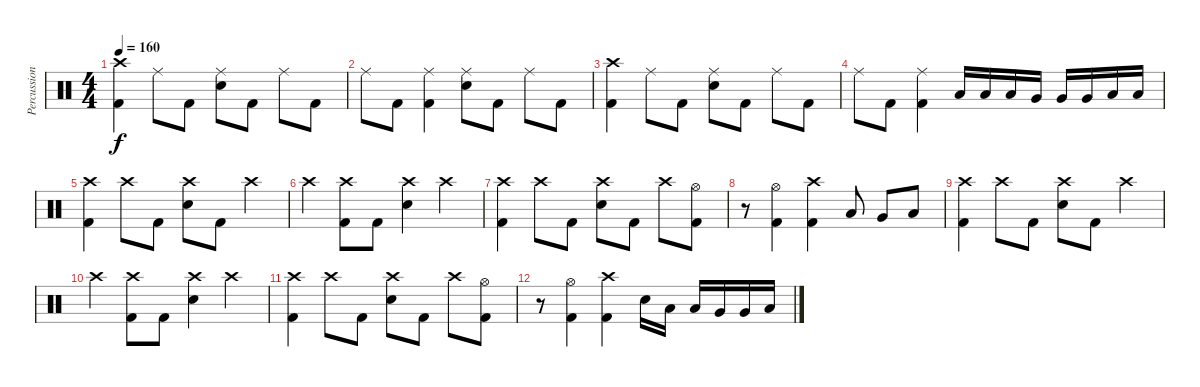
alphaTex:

\track ("Percussion" "Percussion") {instrument percussion}
\staff {score}
\articulation defaults
\ts (4 4)
\tempo 160
\clef neutral
\ks c
("Crash high (hit)" "Kick (hit) 2").4{dy f} "Ride (middle)".8 "Kick (hit) 2".8 ("Ride (middle)" "Electric Snare (hit)").8 "Kick (hit) 2".8 "Ride (middle)".8 "Kick (hit) 2".8 |
"Ride (middle)".8 "Kick (hit) 2".8 ("Ride (middle)" "Kick (hit) 2").4 ("Ride (middle)" "Electric Snare (hit)").8 "Kick (hit) 2".8 "Ride (middle)".8 "Kick (hit) 2".8 |
("Crash high (hit)" "Kick (hit) 2").4 "Ride (middle)".8 "Kick (hit) 2".8 ("Ride (middle)" "Electric Snare (hit)").8 "Kick (hit) 2".8 "Ride (middle)".8 "Kick (hit) 2".8 |
"Ride (middle)".8 "Kick (hit) 2".8 ("Ride (middle)" "Kick (hit) 2").4 "Low Tom (hit)".16 "Low Tom (hit)".16 "Low Tom (hit)".16 "Very Low Tom (hit)".16 "Very Low Tom (hit)".16 "Very Low Tom (hit)".16 "Low Floor Tom (hit)".16 "Low Floor Tom (hit)".16 |
("Crash high (hit)" "Kick (hit) 2").4 "Crash high (hit)".8 "Kick (hit) 2".8 ("Crash high (hit)" "Electric Snare (hit)").8 "Kick (hit) 2".8 "Crash high (hit)".4 |
"Crash high (hit)".4 ("Crash high (hit)" "Kick (hit) 2").8 "Kick (hit) 2".8 ("Crash high (hit)" "Electric Snare (hit)").4 "Crash high (hit)".4 |
("Crash high (hit)" "Kick (hit) 2").4 "Crash high (hit)".8 "Kick (hit) 2".8 ("Crash high (hit)" "Electric Snare (hit)").8 "Kick (hit) 2".8 "Crash high (hit)".8 ("Hi-Hat (open)" "Kick (hit) 2").8 |
r.8 ("Hi-Hat (open)" "Kick (hit) 2").4 ("Crash high (hit)" "Kick (hit) 2").4 "Low Tom (hit)".8 "Very Low Tom (hit)".8 "Low Floor Tom (hit)".8 |
("Crash high (hit)" "Kick (hit) 2").4 "Crash high (hit)".8 "Kick (hit) 2".8 ("Crash high (hit)" "Electric Snare (hit)").8 "Kick (hit) 2".8 "Crash high (hit)".4 |
"Crash high (hit)".4 ("Crash high (hit)" "Kick (hit) 2").8 "Kick (hit) 2".8 ("Crash high (hit)" "Electric Snare (hit)").4 "Crash high (hit)".4 |
("Crash high (hit)" "Kick (hit) 2").4 "Crash high (hit)".8 "Kick (hit) 2".8 ("Crash high (hit)" "Electric Snare (hit)").8 "Kick (hit) 2".8 "Crash high (hit)".8 ("Hi-Hat (open)" "Kick (hit) 2").8 |
r.8 ("Hi-Hat (open)" "Kick (hit) 2").4 ("Crash high (hit)" "Kick (hit) 2").4 "Electric Snare (hit)".16 "Low Tom (hit)".16 "Low Tom (hit)".16 "Very Low Tom (hit)".16 "Very Low Tom (hit)".16 "Low Floor Tom (hit)".16
